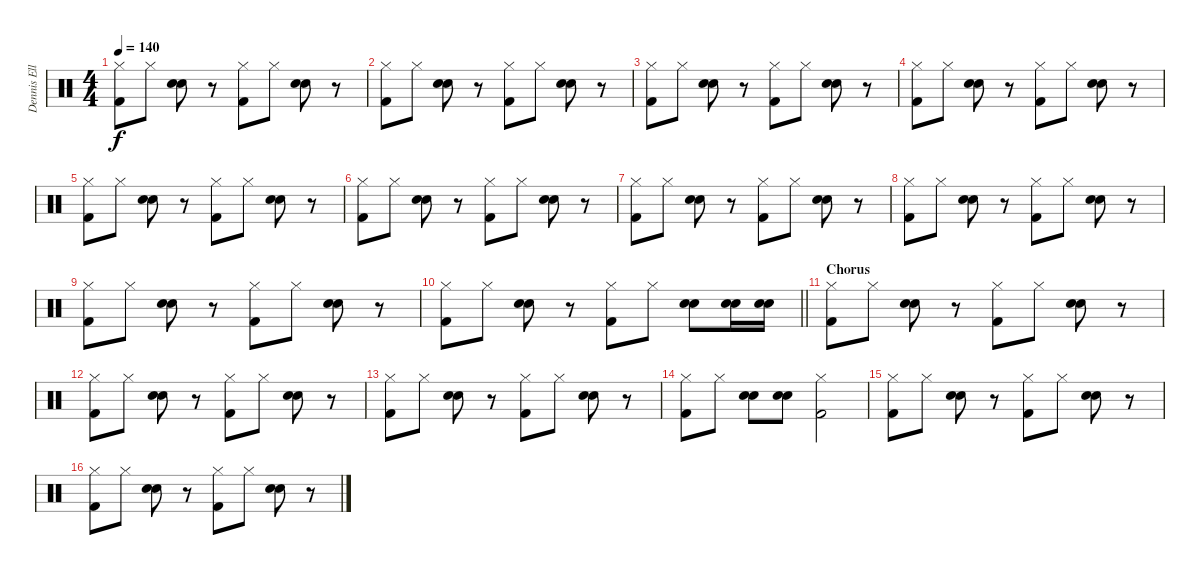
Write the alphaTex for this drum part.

\track ("Dennis Elliott (Drums)" "Dennis Ell") {instrument percussion}
\staff {score}
\articulation defaults
\ts (4 4)
\tempo 140
\clef neutral
\ks c
("Hi-Hat (closed)" "Kick (hit) 2").8{dy f} "Hi-Hat (closed)".8 ("Electric Snare (hit)" "Snare (hit) 2").8 r.8 ("Hi-Hat (closed)" "Kick (hit) 2").8 "Hi-Hat (closed)".8 ("Electric Snare (hit)" "Snare (hit) 2").8 r.8 |
("Hi-Hat (closed)" "Kick (hit) 2").8 "Hi-Hat (closed)".8 ("Electric Snare (hit)" "Snare (hit) 2").8 r.8 ("Hi-Hat (closed)" "Kick (hit) 2").8 "Hi-Hat (closed)".8 ("Electric Snare (hit)" "Snare (hit) 2").8 r.8 |
("Hi-Hat (closed)" "Kick (hit) 2").8 "Hi-Hat (closed)".8 ("Electric Snare (hit)" "Snare (hit) 2").8 r.8 ("Hi-Hat (closed)" "Kick (hit) 2").8 "Hi-Hat (closed)".8 ("Electric Snare (hit)" "Snare (hit) 2").8 r.8 |
("Hi-Hat (closed)" "Kick (hit) 2").8 "Hi-Hat (closed)".8 ("Electric Snare (hit)" "Snare (hit) 2").8 r.8 ("Hi-Hat (closed)" "Kick (hit) 2").8 "Hi-Hat (closed)".8 ("Electric Snare (hit)" "Snare (hit) 2").8 r.8 |
("Hi-Hat (closed)" "Kick (hit) 2").8 "Hi-Hat (closed)".8 ("Electric Snare (hit)" "Snare (hit) 2").8 r.8 ("Hi-Hat (closed)" "Kick (hit) 2").8 "Hi-Hat (closed)".8 ("Electric Snare (hit)" "Snare (hit) 2").8 r.8 |
("Hi-Hat (closed)" "Kick (hit) 2").8 "Hi-Hat (closed)".8 ("Electric Snare (hit)" "Snare (hit) 2").8 r.8 ("Hi-Hat (closed)" "Kick (hit) 2").8 "Hi-Hat (closed)".8 ("Electric Snare (hit)" "Snare (hit) 2").8 r.8 |
("Hi-Hat (closed)" "Kick (hit) 2").8 "Hi-Hat (closed)".8 ("Electric Snare (hit)" "Snare (hit) 2").8 r.8 ("Hi-Hat (closed)" "Kick (hit) 2").8 "Hi-Hat (closed)".8 ("Electric Snare (hit)" "Snare (hit) 2").8 r.8 |
("Hi-Hat (closed)" "Kick (hit) 2").8 "Hi-Hat (closed)".8 ("Electric Snare (hit)" "Snare (hit) 2").8 r.8 ("Hi-Hat (closed)" "Kick (hit) 2").8 "Hi-Hat (closed)".8 ("Electric Snare (hit)" "Snare (hit) 2").8 r.8 |
("Hi-Hat (closed)" "Kick (hit) 2").8 "Hi-Hat (closed)".8 ("Electric Snare (hit)" "Snare (hit) 2").8 r.8 ("Hi-Hat (closed)" "Kick (hit) 2").8 "Hi-Hat (closed)".8 ("Electric Snare (hit)" "Snare (hit) 2").8 r.8 |
\barLineRight lightlight
("Hi-Hat (closed)" "Kick (hit) 2").8 "Hi-Hat (closed)".8 ("Electric Snare (hit)" "Snare (hit) 2").8 r.8 ("Hi-Hat (closed)" "Kick (hit) 2").8 "Hi-Hat (closed)".8 ("Electric Snare (hit)" "Snare (hit) 2").8 ("Electric Snare (hit)" "Snare (hit) 2").16 ("Electric Snare (hit)" "Snare (hit) 2").16 |
\section ("" "Chorus")
("Hi-Hat (closed)" "Kick (hit) 2").8 "Hi-Hat (closed)".8 ("Electric Snare (hit)" "Snare (hit) 2").8 r.8 ("Hi-Hat (closed)" "Kick (hit) 2").8 "Hi-Hat (closed)".8 ("Electric Snare (hit)" "Snare (hit) 2").8 r.8 |
("Hi-Hat (closed)" "Kick (hit) 2").8 "Hi-Hat (closed)".8 ("Electric Snare (hit)" "Snare (hit) 2").8 r.8 ("Hi-Hat (closed)" "Kick (hit) 2").8 "Hi-Hat (closed)".8 ("Electric Snare (hit)" "Snare (hit) 2").8 r.8 |
("Hi-Hat (closed)" "Kick (hit) 2").8 "Hi-Hat (closed)".8 ("Electric Snare (hit)" "Snare (hit) 2").8 r.8 ("Hi-Hat (closed)" "Kick (hit) 2").8 "Hi-Hat (closed)".8 ("Electric Snare (hit)" "Snare (hit) 2").8 r.8 |
("Hi-Hat (closed)" "Kick (hit) 2").8 "Hi-Hat (closed)".8 ("Electric Snare (hit)" "Snare (hit) 2").8 ("Electric Snare (hit)" "Snare (hit) 2").8 ("Hi-Hat (closed)" "Kick (hit) 2").2 |
("Hi-Hat (closed)" "Kick (hit) 2").8 "Hi-Hat (closed)".8 ("Electric Snare (hit)" "Snare (hit) 2").8 r.8 ("Hi-Hat (closed)" "Kick (hit) 2").8 "Hi-Hat (closed)".8 ("Electric Snare (hit)" "Snare (hit) 2").8 r.8 |
("Hi-Hat (closed)" "Kick (hit) 2").8 "Hi-Hat (closed)".8 ("Electric Snare (hit)" "Snare (hit) 2").8 r.8 ("Hi-Hat (closed)" "Kick (hit) 2").8 "Hi-Hat (closed)".8 ("Electric Snare (hit)" "Snare (hit) 2").8 r.8
